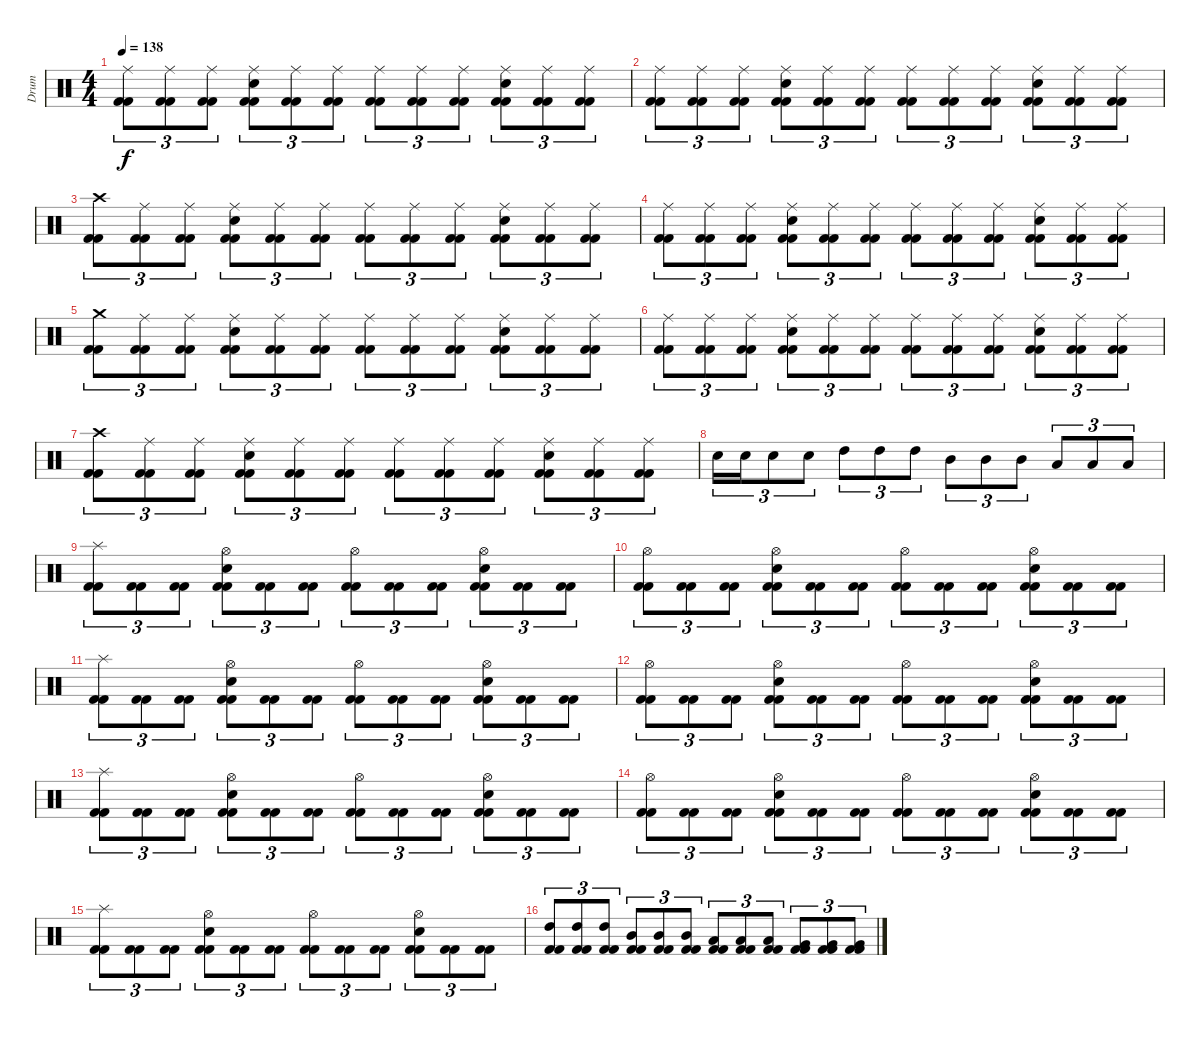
\track ("Drum" "Drum") {instrument percussion}
\staff {score}
\articulation defaults
\ts (4 4)
\tempo 138
\clef neutral
\ks c
("Kick (hit) 2" "Kick (hit) 2" "Ride (middle)").8{tu (3 2) dy f} ("Kick (hit) 2" "Kick (hit) 2" "Ride (middle)").8{tu (3 2)} ("Kick (hit) 2" "Kick (hit) 2" "Ride (middle)").8{tu (3 2)} ("Kick (hit) 2" "Kick (hit) 2" "Electric Snare (hit)" "Ride (middle)").8{tu (3 2)} ("Kick (hit) 2" "Kick (hit) 2" "Ride (middle)").8{tu (3 2)} ("Kick (hit) 2" "Kick (hit) 2" "Ride (middle)").8{tu (3 2)} ("Kick (hit) 2" "Kick (hit) 2" "Ride (middle)").8{tu (3 2)} ("Kick (hit) 2" "Kick (hit) 2" "Ride (middle)").8{tu (3 2)} ("Kick (hit) 2" "Kick (hit) 2" "Ride (middle)").8{tu (3 2)} ("Kick (hit) 2" "Kick (hit) 2" "Electric Snare (hit)" "Ride (middle)").8{tu (3 2)} ("Kick (hit) 2" "Kick (hit) 2" "Ride (middle)").8{tu (3 2)} ("Kick (hit) 2" "Kick (hit) 2" "Ride (middle)").8{tu (3 2)} |
("Kick (hit) 2" "Kick (hit) 2" "Ride (middle)").8{tu (3 2)} ("Kick (hit) 2" "Kick (hit) 2" "Ride (middle)").8{tu (3 2)} ("Kick (hit) 2" "Kick (hit) 2" "Ride (middle)").8{tu (3 2)} ("Kick (hit) 2" "Kick (hit) 2" "Electric Snare (hit)" "Ride (middle)").8{tu (3 2)} ("Kick (hit) 2" "Kick (hit) 2" "Ride (middle)").8{tu (3 2)} ("Kick (hit) 2" "Kick (hit) 2" "Ride (middle)").8{tu (3 2)} ("Kick (hit) 2" "Kick (hit) 2" "Ride (middle)").8{tu (3 2)} ("Kick (hit) 2" "Kick (hit) 2" "Ride (middle)").8{tu (3 2)} ("Kick (hit) 2" "Kick (hit) 2" "Ride (middle)").8{tu (3 2)} ("Kick (hit) 2" "Kick (hit) 2" "Electric Snare (hit)" "Ride (middle)").8{tu (3 2)} ("Kick (hit) 2" "Kick (hit) 2" "Ride (middle)").8{tu (3 2)} ("Kick (hit) 2" "Kick (hit) 2" "Ride (middle)").8{tu (3 2)} |
("Kick (hit) 2" "Kick (hit) 2" "Crash high (hit)").8{tu (3 2)} ("Kick (hit) 2" "Kick (hit) 2" "Ride (middle)").8{tu (3 2)} ("Kick (hit) 2" "Kick (hit) 2" "Ride (middle)").8{tu (3 2)} ("Kick (hit) 2" "Kick (hit) 2" "Electric Snare (hit)" "Ride (middle)").8{tu (3 2)} ("Kick (hit) 2" "Kick (hit) 2" "Ride (middle)").8{tu (3 2)} ("Kick (hit) 2" "Kick (hit) 2" "Ride (middle)").8{tu (3 2)} ("Kick (hit) 2" "Kick (hit) 2" "Ride (middle)").8{tu (3 2)} ("Kick (hit) 2" "Kick (hit) 2" "Ride (middle)").8{tu (3 2)} ("Kick (hit) 2" "Kick (hit) 2" "Ride (middle)").8{tu (3 2)} ("Kick (hit) 2" "Kick (hit) 2" "Electric Snare (hit)" "Ride (middle)").8{tu (3 2)} ("Kick (hit) 2" "Kick (hit) 2" "Ride (middle)").8{tu (3 2)} ("Kick (hit) 2" "Kick (hit) 2" "Ride (middle)").8{tu (3 2)} |
("Kick (hit) 2" "Kick (hit) 2" "Ride (middle)").8{tu (3 2)} ("Kick (hit) 2" "Kick (hit) 2" "Ride (middle)").8{tu (3 2)} ("Kick (hit) 2" "Kick (hit) 2" "Ride (middle)").8{tu (3 2)} ("Kick (hit) 2" "Kick (hit) 2" "Electric Snare (hit)" "Ride (middle)").8{tu (3 2)} ("Kick (hit) 2" "Kick (hit) 2" "Ride (middle)").8{tu (3 2)} ("Kick (hit) 2" "Kick (hit) 2" "Ride (middle)").8{tu (3 2)} ("Kick (hit) 2" "Kick (hit) 2" "Ride (middle)").8{tu (3 2)} ("Kick (hit) 2" "Kick (hit) 2" "Ride (middle)").8{tu (3 2)} ("Kick (hit) 2" "Kick (hit) 2" "Ride (middle)").8{tu (3 2)} ("Kick (hit) 2" "Kick (hit) 2" "Electric Snare (hit)" "Ride (middle)").8{tu (3 2)} ("Kick (hit) 2" "Kick (hit) 2" "Ride (middle)").8{tu (3 2)} ("Kick (hit) 2" "Kick (hit) 2" "Ride (middle)").8{tu (3 2)} |
("Kick (hit) 2" "Kick (hit) 2" "Crash medium (hit)").8{tu (3 2)} ("Kick (hit) 2" "Kick (hit) 2" "Ride (middle)").8{tu (3 2)} ("Kick (hit) 2" "Kick (hit) 2" "Ride (middle)").8{tu (3 2)} ("Kick (hit) 2" "Kick (hit) 2" "Electric Snare (hit)" "Ride (middle)").8{tu (3 2)} ("Kick (hit) 2" "Kick (hit) 2" "Ride (middle)").8{tu (3 2)} ("Kick (hit) 2" "Kick (hit) 2" "Ride (middle)").8{tu (3 2)} ("Kick (hit) 2" "Kick (hit) 2" "Ride (middle)").8{tu (3 2)} ("Kick (hit) 2" "Kick (hit) 2" "Ride (middle)").8{tu (3 2)} ("Kick (hit) 2" "Kick (hit) 2" "Ride (middle)").8{tu (3 2)} ("Kick (hit) 2" "Kick (hit) 2" "Electric Snare (hit)" "Ride (middle)").8{tu (3 2)} ("Kick (hit) 2" "Kick (hit) 2" "Ride (middle)").8{tu (3 2)} ("Kick (hit) 2" "Kick (hit) 2" "Ride (middle)").8{tu (3 2)} |
("Kick (hit) 2" "Kick (hit) 2" "Ride (middle)").8{tu (3 2)} ("Kick (hit) 2" "Kick (hit) 2" "Ride (middle)").8{tu (3 2)} ("Kick (hit) 2" "Kick (hit) 2" "Ride (middle)").8{tu (3 2)} ("Kick (hit) 2" "Kick (hit) 2" "Electric Snare (hit)" "Ride (middle)").8{tu (3 2)} ("Kick (hit) 2" "Kick (hit) 2" "Ride (middle)").8{tu (3 2)} ("Kick (hit) 2" "Kick (hit) 2" "Ride (middle)").8{tu (3 2)} ("Kick (hit) 2" "Kick (hit) 2" "Ride (middle)").8{tu (3 2)} ("Kick (hit) 2" "Kick (hit) 2" "Ride (middle)").8{tu (3 2)} ("Kick (hit) 2" "Kick (hit) 2" "Ride (middle)").8{tu (3 2)} ("Kick (hit) 2" "Kick (hit) 2" "Electric Snare (hit)" "Ride (middle)").8{tu (3 2)} ("Kick (hit) 2" "Kick (hit) 2" "Ride (middle)").8{tu (3 2)} ("Kick (hit) 2" "Kick (hit) 2" "Ride (middle)").8{tu (3 2)} |
("Kick (hit) 2" "Kick (hit) 2" "Crash high (hit)").8{tu (3 2)} ("Kick (hit) 2" "Kick (hit) 2" "Ride (middle)").8{tu (3 2)} ("Kick (hit) 2" "Kick (hit) 2" "Ride (middle)").8{tu (3 2)} ("Kick (hit) 2" "Kick (hit) 2" "Electric Snare (hit)" "Ride (middle)").8{tu (3 2)} ("Kick (hit) 2" "Kick (hit) 2" "Ride (middle)").8{tu (3 2)} ("Kick (hit) 2" "Kick (hit) 2" "Ride (middle)").8{tu (3 2)} ("Kick (hit) 2" "Kick (hit) 2" "Ride (middle)").8{tu (3 2)} ("Kick (hit) 2" "Kick (hit) 2" "Ride (middle)").8{tu (3 2)} ("Kick (hit) 2" "Kick (hit) 2" "Ride (middle)").8{tu (3 2)} ("Kick (hit) 2" "Kick (hit) 2" "Electric Snare (hit)" "Ride (middle)").8{tu (3 2)} ("Kick (hit) 2" "Kick (hit) 2" "Ride (middle)").8{tu (3 2)} ("Kick (hit) 2" "Kick (hit) 2" "Ride (middle)").8{tu (3 2)} |
"Electric Snare (hit)".16{tu (3 2)} "Electric Snare (hit)".16{tu (3 2)} "Electric Snare (hit)".8{tu (3 2)} "Electric Snare (hit)".8{tu (3 2)} "High Tom (hit)".8{tu (3 2)} "High Tom (hit)".8{tu (3 2)} "High Tom (hit)".8{tu (3 2)} "Mid Tom (hit)".8{tu (3 2)} "Mid Tom (hit)".8{tu (3 2)} "Mid Tom (hit)".8{tu (3 2)} "Low Tom (hit)".8{tu (3 2)} "Low Tom (hit)".8{tu (3 2)} "Low Tom (hit)".8{tu (3 2)} |
("Kick (hit) 2" "Kick (hit) 2" "Splash (hit)").8{tu (3 2)} ("Kick (hit) 2" "Kick (hit) 2").8{tu (3 2)} ("Kick (hit) 2" "Kick (hit) 2").8{tu (3 2)} ("Kick (hit) 2" "Kick (hit) 2" "Electric Snare (hit)" "Hi-Hat (open)").8{tu (3 2)} ("Kick (hit) 2" "Kick (hit) 2").8{tu (3 2)} ("Kick (hit) 2" "Kick (hit) 2").8{tu (3 2)} ("Kick (hit) 2" "Kick (hit) 2" "Hi-Hat (open)").8{tu (3 2)} ("Kick (hit) 2" "Kick (hit) 2").8{tu (3 2)} ("Kick (hit) 2" "Kick (hit) 2").8{tu (3 2)} ("Kick (hit) 2" "Kick (hit) 2" "Electric Snare (hit)" "Hi-Hat (open)").8{tu (3 2)} ("Kick (hit) 2" "Kick (hit) 2").8{tu (3 2)} ("Kick (hit) 2" "Kick (hit) 2").8{tu (3 2)} |
("Kick (hit) 2" "Kick (hit) 2" "Hi-Hat (open)").8{tu (3 2)} ("Kick (hit) 2" "Kick (hit) 2").8{tu (3 2)} ("Kick (hit) 2" "Kick (hit) 2").8{tu (3 2)} ("Kick (hit) 2" "Kick (hit) 2" "Electric Snare (hit)" "Hi-Hat (open)").8{tu (3 2)} ("Kick (hit) 2" "Kick (hit) 2").8{tu (3 2)} ("Kick (hit) 2" "Kick (hit) 2").8{tu (3 2)} ("Kick (hit) 2" "Kick (hit) 2" "Hi-Hat (open)").8{tu (3 2)} ("Kick (hit) 2" "Kick (hit) 2").8{tu (3 2)} ("Kick (hit) 2" "Kick (hit) 2").8{tu (3 2)} ("Kick (hit) 2" "Kick (hit) 2" "Electric Snare (hit)" "Hi-Hat (open)").8{tu (3 2)} ("Kick (hit) 2" "Kick (hit) 2").8{tu (3 2)} ("Kick (hit) 2" "Kick (hit) 2").8{tu (3 2)} |
("Kick (hit) 2" "Kick (hit) 2" "Splash (hit)").8{tu (3 2)} ("Kick (hit) 2" "Kick (hit) 2").8{tu (3 2)} ("Kick (hit) 2" "Kick (hit) 2").8{tu (3 2)} ("Kick (hit) 2" "Kick (hit) 2" "Electric Snare (hit)" "Hi-Hat (open)").8{tu (3 2)} ("Kick (hit) 2" "Kick (hit) 2").8{tu (3 2)} ("Kick (hit) 2" "Kick (hit) 2").8{tu (3 2)} ("Kick (hit) 2" "Kick (hit) 2" "Hi-Hat (open)").8{tu (3 2)} ("Kick (hit) 2" "Kick (hit) 2").8{tu (3 2)} ("Kick (hit) 2" "Kick (hit) 2").8{tu (3 2)} ("Kick (hit) 2" "Kick (hit) 2" "Electric Snare (hit)" "Hi-Hat (open)").8{tu (3 2)} ("Kick (hit) 2" "Kick (hit) 2").8{tu (3 2)} ("Kick (hit) 2" "Kick (hit) 2").8{tu (3 2)} |
("Kick (hit) 2" "Kick (hit) 2" "Hi-Hat (open)").8{tu (3 2)} ("Kick (hit) 2" "Kick (hit) 2").8{tu (3 2)} ("Kick (hit) 2" "Kick (hit) 2").8{tu (3 2)} ("Kick (hit) 2" "Kick (hit) 2" "Electric Snare (hit)" "Hi-Hat (open)").8{tu (3 2)} ("Kick (hit) 2" "Kick (hit) 2").8{tu (3 2)} ("Kick (hit) 2" "Kick (hit) 2").8{tu (3 2)} ("Kick (hit) 2" "Kick (hit) 2" "Hi-Hat (open)").8{tu (3 2)} ("Kick (hit) 2" "Kick (hit) 2").8{tu (3 2)} ("Kick (hit) 2" "Kick (hit) 2").8{tu (3 2)} ("Kick (hit) 2" "Kick (hit) 2" "Electric Snare (hit)" "Hi-Hat (open)").8{tu (3 2)} ("Kick (hit) 2" "Kick (hit) 2").8{tu (3 2)} ("Kick (hit) 2" "Kick (hit) 2").8{tu (3 2)} |
("Kick (hit) 2" "Kick (hit) 2" "Splash (hit)").8{tu (3 2)} ("Kick (hit) 2" "Kick (hit) 2").8{tu (3 2)} ("Kick (hit) 2" "Kick (hit) 2").8{tu (3 2)} ("Kick (hit) 2" "Kick (hit) 2" "Electric Snare (hit)" "Hi-Hat (open)").8{tu (3 2)} ("Kick (hit) 2" "Kick (hit) 2").8{tu (3 2)} ("Kick (hit) 2" "Kick (hit) 2").8{tu (3 2)} ("Kick (hit) 2" "Kick (hit) 2" "Hi-Hat (open)").8{tu (3 2)} ("Kick (hit) 2" "Kick (hit) 2").8{tu (3 2)} ("Kick (hit) 2" "Kick (hit) 2").8{tu (3 2)} ("Kick (hit) 2" "Kick (hit) 2" "Electric Snare (hit)" "Hi-Hat (open)").8{tu (3 2)} ("Kick (hit) 2" "Kick (hit) 2").8{tu (3 2)} ("Kick (hit) 2" "Kick (hit) 2").8{tu (3 2)} |
("Kick (hit) 2" "Kick (hit) 2" "Hi-Hat (open)").8{tu (3 2)} ("Kick (hit) 2" "Kick (hit) 2").8{tu (3 2)} ("Kick (hit) 2" "Kick (hit) 2").8{tu (3 2)} ("Kick (hit) 2" "Kick (hit) 2" "Electric Snare (hit)" "Hi-Hat (open)").8{tu (3 2)} ("Kick (hit) 2" "Kick (hit) 2").8{tu (3 2)} ("Kick (hit) 2" "Kick (hit) 2").8{tu (3 2)} ("Kick (hit) 2" "Kick (hit) 2" "Hi-Hat (open)").8{tu (3 2)} ("Kick (hit) 2" "Kick (hit) 2").8{tu (3 2)} ("Kick (hit) 2" "Kick (hit) 2").8{tu (3 2)} ("Kick (hit) 2" "Kick (hit) 2" "Electric Snare (hit)" "Hi-Hat (open)").8{tu (3 2)} ("Kick (hit) 2" "Kick (hit) 2").8{tu (3 2)} ("Kick (hit) 2" "Kick (hit) 2").8{tu (3 2)} |
("Kick (hit) 2" "Kick (hit) 2" "Splash (hit)").8{tu (3 2)} ("Kick (hit) 2" "Kick (hit) 2").8{tu (3 2)} ("Kick (hit) 2" "Kick (hit) 2").8{tu (3 2)} ("Kick (hit) 2" "Kick (hit) 2" "Electric Snare (hit)" "Hi-Hat (open)").8{tu (3 2)} ("Kick (hit) 2" "Kick (hit) 2").8{tu (3 2)} ("Kick (hit) 2" "Kick (hit) 2").8{tu (3 2)} ("Kick (hit) 2" "Kick (hit) 2" "Hi-Hat (open)").8{tu (3 2)} ("Kick (hit) 2" "Kick (hit) 2").8{tu (3 2)} ("Kick (hit) 2" "Kick (hit) 2").8{tu (3 2)} ("Kick (hit) 2" "Kick (hit) 2" "Electric Snare (hit)" "Hi-Hat (open)").8{tu (3 2)} ("Kick (hit) 2" "Kick (hit) 2").8{tu (3 2)} ("Kick (hit) 2" "Kick (hit) 2").8{tu (3 2)} |
("Kick (hit) 2" "Kick (hit) 2" "High Tom (hit)").8{tu (3 2)} ("Kick (hit) 2" "Kick (hit) 2" "High Tom (hit)").8{tu (3 2)} ("Kick (hit) 2" "Kick (hit) 2" "High Tom (hit)").8{tu (3 2)} ("Kick (hit) 2" "Kick (hit) 2" "Mid Tom (hit)").8{tu (3 2)} ("Kick (hit) 2" "Kick (hit) 2" "Mid Tom (hit)").8{tu (3 2)} ("Kick (hit) 2" "Kick (hit) 2" "Mid Tom (hit)").8{tu (3 2)} ("Kick (hit) 2" "Kick (hit) 2" "Low Tom (hit)").8{tu (3 2)} ("Kick (hit) 2" "Kick (hit) 2" "Low Tom (hit)").8{tu (3 2)} ("Kick (hit) 2" "Kick (hit) 2" "Low Tom (hit)").8{tu (3 2)} ("Kick (hit) 2" "Kick (hit) 2" "Very Low Tom (hit)").8{tu (3 2)} ("Kick (hit) 2" "Kick (hit) 2" "Very Low Tom (hit)").8{tu (3 2)} ("Kick (hit) 2" "Kick (hit) 2" "Very Low Tom (hit)").8{tu (3 2)}
